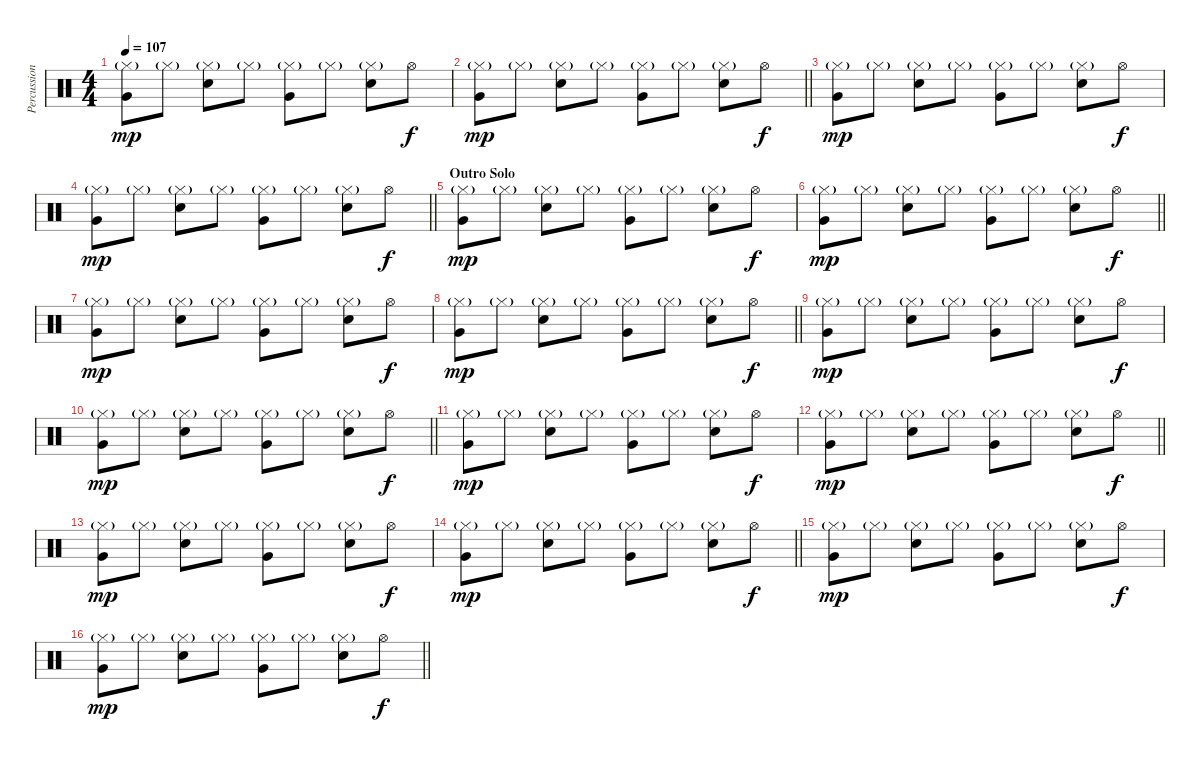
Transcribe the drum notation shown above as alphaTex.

\track ("Percussion" "Percussion") {instrument percussion}
\staff {score}
\articulation defaults
\ts (4 4)
\tempo 107
\clef neutral
\ks c
("Hi-Hat (closed)"{g} "Very Low Tom (hit)").8{dy mp} "Hi-Hat (closed)"{g}.8 ("Hi-Hat (closed)"{g} "Electric Snare (hit)").8 "Hi-Hat (closed)"{g}.8 ("Hi-Hat (closed)"{g} "Very Low Tom (hit)").8 "Hi-Hat (closed)"{g}.8 ("Hi-Hat (closed)"{g} "Electric Snare (hit)").8 "Hi-Hat (open)".8{dy f} |
\barLineRight lightlight
("Hi-Hat (closed)"{g} "Very Low Tom (hit)").8{dy mp} "Hi-Hat (closed)"{g}.8 ("Hi-Hat (closed)"{g} "Electric Snare (hit)").8 "Hi-Hat (closed)"{g}.8 ("Hi-Hat (closed)"{g} "Very Low Tom (hit)").8 "Hi-Hat (closed)"{g}.8 ("Hi-Hat (closed)"{g} "Electric Snare (hit)").8 "Hi-Hat (open)".8{dy f} |
("Hi-Hat (closed)"{g} "Very Low Tom (hit)").8{dy mp} "Hi-Hat (closed)"{g}.8 ("Hi-Hat (closed)"{g} "Electric Snare (hit)").8 "Hi-Hat (closed)"{g}.8 ("Hi-Hat (closed)"{g} "Very Low Tom (hit)").8 "Hi-Hat (closed)"{g}.8 ("Hi-Hat (closed)"{g} "Electric Snare (hit)").8 "Hi-Hat (open)".8{dy f} |
\barLineRight lightlight
("Hi-Hat (closed)"{g} "Very Low Tom (hit)").8{dy mp} "Hi-Hat (closed)"{g}.8 ("Hi-Hat (closed)"{g} "Electric Snare (hit)").8 "Hi-Hat (closed)"{g}.8 ("Hi-Hat (closed)"{g} "Very Low Tom (hit)").8 "Hi-Hat (closed)"{g}.8 ("Hi-Hat (closed)"{g} "Electric Snare (hit)").8 "Hi-Hat (open)".8{dy f} |
\section ("" "Outro Solo")
("Hi-Hat (closed)"{g} "Very Low Tom (hit)").8{dy mp} "Hi-Hat (closed)"{g}.8 ("Hi-Hat (closed)"{g} "Electric Snare (hit)").8 "Hi-Hat (closed)"{g}.8 ("Hi-Hat (closed)"{g} "Very Low Tom (hit)").8 "Hi-Hat (closed)"{g}.8 ("Hi-Hat (closed)"{g} "Electric Snare (hit)").8 "Hi-Hat (open)".8{dy f} |
\barLineRight lightlight
("Hi-Hat (closed)"{g} "Very Low Tom (hit)").8{dy mp} "Hi-Hat (closed)"{g}.8 ("Hi-Hat (closed)"{g} "Electric Snare (hit)").8 "Hi-Hat (closed)"{g}.8 ("Hi-Hat (closed)"{g} "Very Low Tom (hit)").8 "Hi-Hat (closed)"{g}.8 ("Hi-Hat (closed)"{g} "Electric Snare (hit)").8 "Hi-Hat (open)".8{dy f} |
("Hi-Hat (closed)"{g} "Very Low Tom (hit)").8{dy mp} "Hi-Hat (closed)"{g}.8 ("Hi-Hat (closed)"{g} "Electric Snare (hit)").8 "Hi-Hat (closed)"{g}.8 ("Hi-Hat (closed)"{g} "Very Low Tom (hit)").8 "Hi-Hat (closed)"{g}.8 ("Hi-Hat (closed)"{g} "Electric Snare (hit)").8 "Hi-Hat (open)".8{dy f} |
\barLineRight lightlight
("Hi-Hat (closed)"{g} "Very Low Tom (hit)").8{dy mp} "Hi-Hat (closed)"{g}.8 ("Hi-Hat (closed)"{g} "Electric Snare (hit)").8 "Hi-Hat (closed)"{g}.8 ("Hi-Hat (closed)"{g} "Very Low Tom (hit)").8 "Hi-Hat (closed)"{g}.8 ("Hi-Hat (closed)"{g} "Electric Snare (hit)").8 "Hi-Hat (open)".8{dy f} |
("Hi-Hat (closed)"{g} "Very Low Tom (hit)").8{dy mp} "Hi-Hat (closed)"{g}.8 ("Hi-Hat (closed)"{g} "Electric Snare (hit)").8 "Hi-Hat (closed)"{g}.8 ("Hi-Hat (closed)"{g} "Very Low Tom (hit)").8 "Hi-Hat (closed)"{g}.8 ("Hi-Hat (closed)"{g} "Electric Snare (hit)").8 "Hi-Hat (open)".8{dy f} |
\barLineRight lightlight
("Hi-Hat (closed)"{g} "Very Low Tom (hit)").8{dy mp} "Hi-Hat (closed)"{g}.8 ("Hi-Hat (closed)"{g} "Electric Snare (hit)").8 "Hi-Hat (closed)"{g}.8 ("Hi-Hat (closed)"{g} "Very Low Tom (hit)").8 "Hi-Hat (closed)"{g}.8 ("Hi-Hat (closed)"{g} "Electric Snare (hit)").8 "Hi-Hat (open)".8{dy f} |
("Hi-Hat (closed)"{g} "Very Low Tom (hit)").8{dy mp} "Hi-Hat (closed)"{g}.8 ("Hi-Hat (closed)"{g} "Electric Snare (hit)").8 "Hi-Hat (closed)"{g}.8 ("Hi-Hat (closed)"{g} "Very Low Tom (hit)").8 "Hi-Hat (closed)"{g}.8 ("Hi-Hat (closed)"{g} "Electric Snare (hit)").8 "Hi-Hat (open)".8{dy f} |
\barLineRight lightlight
("Hi-Hat (closed)"{g} "Very Low Tom (hit)").8{dy mp} "Hi-Hat (closed)"{g}.8 ("Hi-Hat (closed)"{g} "Electric Snare (hit)").8 "Hi-Hat (closed)"{g}.8 ("Hi-Hat (closed)"{g} "Very Low Tom (hit)").8 "Hi-Hat (closed)"{g}.8 ("Hi-Hat (closed)"{g} "Electric Snare (hit)").8 "Hi-Hat (open)".8{dy f} |
("Hi-Hat (closed)"{g} "Very Low Tom (hit)").8{dy mp} "Hi-Hat (closed)"{g}.8 ("Hi-Hat (closed)"{g} "Electric Snare (hit)").8 "Hi-Hat (closed)"{g}.8 ("Hi-Hat (closed)"{g} "Very Low Tom (hit)").8 "Hi-Hat (closed)"{g}.8 ("Hi-Hat (closed)"{g} "Electric Snare (hit)").8 "Hi-Hat (open)".8{dy f} |
\barLineRight lightlight
("Hi-Hat (closed)"{g} "Very Low Tom (hit)").8{dy mp} "Hi-Hat (closed)"{g}.8 ("Hi-Hat (closed)"{g} "Electric Snare (hit)").8 "Hi-Hat (closed)"{g}.8 ("Hi-Hat (closed)"{g} "Very Low Tom (hit)").8 "Hi-Hat (closed)"{g}.8 ("Hi-Hat (closed)"{g} "Electric Snare (hit)").8 "Hi-Hat (open)".8{dy f} |
("Hi-Hat (closed)"{g} "Very Low Tom (hit)").8{dy mp} "Hi-Hat (closed)"{g}.8 ("Hi-Hat (closed)"{g} "Electric Snare (hit)").8 "Hi-Hat (closed)"{g}.8 ("Hi-Hat (closed)"{g} "Very Low Tom (hit)").8 "Hi-Hat (closed)"{g}.8 ("Hi-Hat (closed)"{g} "Electric Snare (hit)").8 "Hi-Hat (open)".8{dy f} |
\barLineRight lightlight
("Hi-Hat (closed)"{g} "Very Low Tom (hit)").8{dy mp} "Hi-Hat (closed)"{g}.8 ("Hi-Hat (closed)"{g} "Electric Snare (hit)").8 "Hi-Hat (closed)"{g}.8 ("Hi-Hat (closed)"{g} "Very Low Tom (hit)").8 "Hi-Hat (closed)"{g}.8 ("Hi-Hat (closed)"{g} "Electric Snare (hit)").8 "Hi-Hat (open)".8{dy f}
